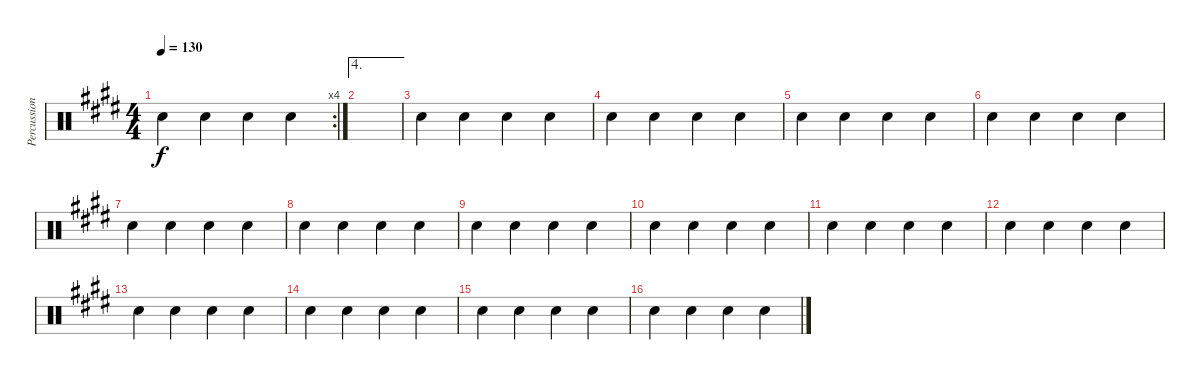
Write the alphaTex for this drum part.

\track ("Percussion" "Percussion") {instrument percussion}
\staff {score}
\articulation defaults
\rc 4
\ts (4 4)
\tempo 130
\clef neutral
\ks e "Snare (hit) 2".4{dy f} "Snare (hit) 2".4 "Snare (hit) 2".4 "Snare (hit) 2".4
|
\ae 4
|
"Snare (hit) 2".4 "Snare (hit) 2".4 "Snare (hit) 2".4 "Snare (hit) 2".4 |
"Snare (hit) 2".4 "Snare (hit) 2".4 "Snare (hit) 2".4 "Snare (hit) 2".4 |
"Snare (hit) 2".4 "Snare (hit) 2".4 "Snare (hit) 2".4 "Snare (hit) 2".4 |
"Snare (hit) 2".4 "Snare (hit) 2".4 "Snare (hit) 2".4 "Snare (hit) 2".4 |
"Snare (hit) 2".4 "Snare (hit) 2".4 "Snare (hit) 2".4 "Snare (hit) 2".4 |
"Snare (hit) 2".4 "Snare (hit) 2".4 "Snare (hit) 2".4 "Snare (hit) 2".4 |
"Snare (hit) 2".4 "Snare (hit) 2".4 "Snare (hit) 2".4 "Snare (hit) 2".4 |
"Snare (hit) 2".4 "Snare (hit) 2".4 "Snare (hit) 2".4 "Snare (hit) 2".4 |
"Snare (hit) 2".4 "Snare (hit) 2".4 "Snare (hit) 2".4 "Snare (hit) 2".4 |
"Snare (hit) 2".4 "Snare (hit) 2".4 "Snare (hit) 2".4 "Snare (hit) 2".4 |
"Snare (hit) 2".4 "Snare (hit) 2".4 "Snare (hit) 2".4 "Snare (hit) 2".4 |
"Snare (hit) 2".4 "Snare (hit) 2".4 "Snare (hit) 2".4 "Snare (hit) 2".4 |
"Snare (hit) 2".4 "Snare (hit) 2".4 "Snare (hit) 2".4 "Snare (hit) 2".4 |
"Snare (hit) 2".4 "Snare (hit) 2".4 "Snare (hit) 2".4 "Snare (hit) 2".4
